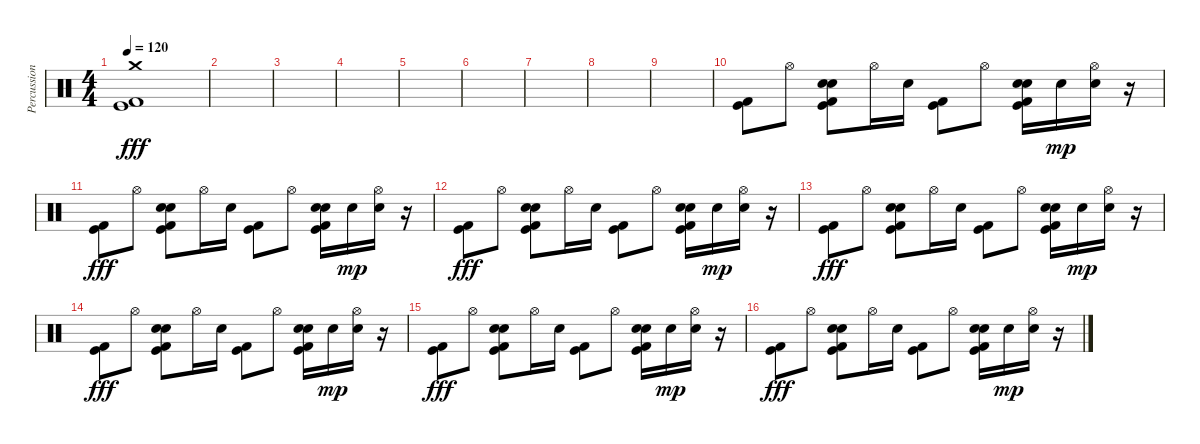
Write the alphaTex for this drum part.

\track ("Percussion" "Percussion") {instrument percussion}
\staff {score}
\articulation defaults
\ts (4 4)
\tempo 120
\clef neutral
\ks c
("Kick (hit)" "Kick (hit) 2" "Crash medium (hit)").1{dy fff} |
|
|
|
|
|
|
|
|
("Kick (hit) 2" "Kick (hit)").8 "Hi-Hat (open)".8 ("Kick (hit) 2" "Kick (hit)" "Hand Clap (hit)" "Electric Snare (hit)").8 "Hi-Hat (open)".16 "Electric Snare (hit)".16 ("Kick (hit) 2" "Kick (hit)").8 "Hi-Hat (open)".8 ("Kick (hit) 2" "Kick (hit)" "Hand Clap (hit)" "Electric Snare (hit)").16 "Electric Snare (hit)".16{dy mp} ("Hi-Hat (open)" "Electric Snare (hit)").16 r.16 |
("Kick (hit) 2" "Kick (hit)").8{dy fff} "Hi-Hat (open)".8 ("Kick (hit) 2" "Kick (hit)" "Hand Clap (hit)" "Electric Snare (hit)").8 "Hi-Hat (open)".16 "Electric Snare (hit)".16 ("Kick (hit) 2" "Kick (hit)").8 "Hi-Hat (open)".8 ("Kick (hit) 2" "Kick (hit)" "Hand Clap (hit)" "Electric Snare (hit)").16 "Electric Snare (hit)".16{dy mp} ("Hi-Hat (open)" "Electric Snare (hit)").16 r.16 |
("Kick (hit) 2" "Kick (hit)").8{dy fff} "Hi-Hat (open)".8 ("Kick (hit) 2" "Kick (hit)" "Hand Clap (hit)" "Electric Snare (hit)").8 "Hi-Hat (open)".16 "Electric Snare (hit)".16 ("Kick (hit) 2" "Kick (hit)").8 "Hi-Hat (open)".8 ("Kick (hit) 2" "Kick (hit)" "Hand Clap (hit)" "Electric Snare (hit)").16 "Electric Snare (hit)".16{dy mp} ("Hi-Hat (open)" "Electric Snare (hit)").16 r.16 |
("Kick (hit) 2" "Kick (hit)").8{dy fff} "Hi-Hat (open)".8 ("Kick (hit) 2" "Kick (hit)" "Hand Clap (hit)" "Electric Snare (hit)").8 "Hi-Hat (open)".16 "Electric Snare (hit)".16 ("Kick (hit) 2" "Kick (hit)").8 "Hi-Hat (open)".8 ("Kick (hit) 2" "Kick (hit)" "Hand Clap (hit)" "Electric Snare (hit)").16 "Electric Snare (hit)".16{dy mp} ("Hi-Hat (open)" "Electric Snare (hit)").16 r.16 |
("Kick (hit) 2" "Kick (hit)").8{dy fff} "Hi-Hat (open)".8 ("Kick (hit) 2" "Kick (hit)" "Hand Clap (hit)" "Electric Snare (hit)").8 "Hi-Hat (open)".16 "Electric Snare (hit)".16 ("Kick (hit) 2" "Kick (hit)").8 "Hi-Hat (open)".8 ("Kick (hit) 2" "Kick (hit)" "Hand Clap (hit)" "Electric Snare (hit)").16 "Electric Snare (hit)".16{dy mp} ("Hi-Hat (open)" "Electric Snare (hit)").16 r.16 |
("Kick (hit) 2" "Kick (hit)").8{dy fff} "Hi-Hat (open)".8 ("Kick (hit) 2" "Kick (hit)" "Hand Clap (hit)" "Electric Snare (hit)").8 "Hi-Hat (open)".16 "Electric Snare (hit)".16 ("Kick (hit) 2" "Kick (hit)").8 "Hi-Hat (open)".8 ("Kick (hit) 2" "Kick (hit)" "Hand Clap (hit)" "Electric Snare (hit)").16 "Electric Snare (hit)".16{dy mp} ("Hi-Hat (open)" "Electric Snare (hit)").16 r.16 |
("Kick (hit) 2" "Kick (hit)").8{dy fff} "Hi-Hat (open)".8 ("Kick (hit) 2" "Kick (hit)" "Hand Clap (hit)" "Electric Snare (hit)").8 "Hi-Hat (open)".16 "Electric Snare (hit)".16 ("Kick (hit) 2" "Kick (hit)").8 "Hi-Hat (open)".8 ("Kick (hit) 2" "Kick (hit)" "Hand Clap (hit)" "Electric Snare (hit)").16 "Electric Snare (hit)".16{dy mp} ("Hi-Hat (open)" "Electric Snare (hit)").16 r.16
